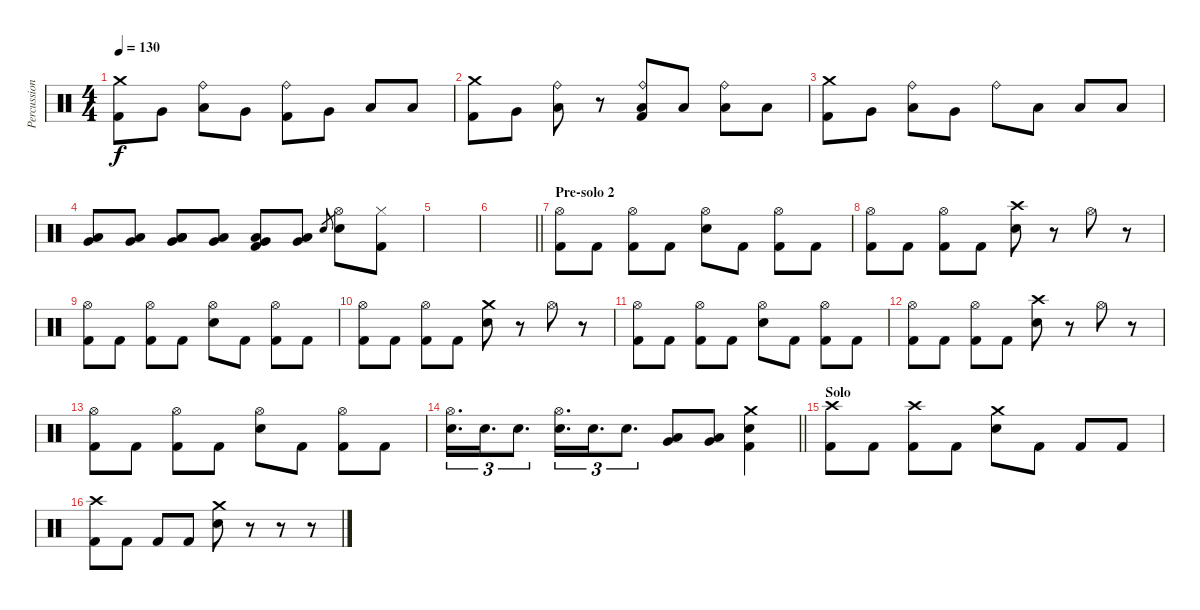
\track ("Percussion" "Percussion") {instrument percussion}
\staff {score}
\articulation defaults
\ts (4 4)
\tempo 130
\clef neutral
\ks c
("Crash medium (hit)" "Kick (hit) 2").8{dy f} "Very Low Tom (hit)".8 ("Ride (bell)" "Low Tom (hit)").8 "Very Low Tom (hit)".8 ("Ride (bell)" "Kick (hit) 2").8 "Very Low Tom (hit)".8 "Low Tom (hit)".8 "Low Tom (hit)".8 |
("Crash medium (hit)" "Kick (hit) 2").8 "Very Low Tom (hit)".8 ("Ride (bell)" "Low Floor Tom (hit)").8 r.8 ("Ride (bell)" "Low Tom (hit)" "Kick (hit) 2").8 "Low Tom (hit)".8 ("Ride (bell)" "Low Tom (hit)").8 "Low Tom (hit)".8 |
("Crash medium (hit)" "Kick (hit) 2").8 "Very Low Tom (hit)".8 ("Ride (bell)" "Low Tom (hit)").8 "Very Low Tom (hit)".8 "Ride (bell)".8 "Low Floor Tom (hit)".8 "Low Floor Tom (hit)".8 "Low Tom (hit)".8{volume 8} |
("Very Low Tom (hit)" "Low Tom (hit)").8{volume 16} ("Very Low Tom (hit)" "Low Tom (hit)").8 ("Very Low Tom (hit)" "Low Tom (hit)" "Low Floor Tom (hit)").8 ("Very Low Tom (hit)" "Low Tom (hit)").8 ("Very Low Tom (hit)" "Low Tom (hit)" "Kick (hit) 2").8 ("Very Low Tom (hit)" "Low Tom (hit)").8 "Electric Snare (hit)".8{gr} ("Hi-Hat (open)" "Electric Snare (hit)").8 ("Hi-Hat (closed)" "Kick (hit) 2").8 |
|
\barLineRight lightlight
|
\section ("" "Pre-solo 2")
("Hi-Hat (open)" "Kick (hit) 2").8 "Kick (hit) 2".8 ("Hi-Hat (open)" "Kick (hit) 2").8 "Kick (hit) 2".8 ("Hi-Hat (open)" "Electric Snare (hit)").8 "Kick (hit) 2".8 ("Hi-Hat (open)" "Kick (hit) 2").8 "Kick (hit) 2".8 |
("Hi-Hat (open)" "Kick (hit) 2").8 "Kick (hit) 2".8 ("Hi-Hat (open)" "Kick (hit) 2").8 "Kick (hit) 2".8 ("Crash high (hit)" "Electric Snare (hit)").8 r.8 "Hi-Hat (open)".8 r.8 |
("Hi-Hat (open)" "Kick (hit) 2").8 "Kick (hit) 2".8 ("Hi-Hat (open)" "Kick (hit) 2").8 "Kick (hit) 2".8 ("Hi-Hat (open)" "Electric Snare (hit)").8 "Kick (hit) 2".8 ("Hi-Hat (open)" "Kick (hit) 2").8 "Kick (hit) 2".8 |
("Hi-Hat (open)" "Kick (hit) 2").8 "Kick (hit) 2".8 ("Hi-Hat (open)" "Kick (hit) 2").8 "Kick (hit) 2".8 ("Crash medium (hit)" "Electric Snare (hit)").8 r.8 "Hi-Hat (open)".8 r.8 |
("Hi-Hat (open)" "Kick (hit) 2").8 "Kick (hit) 2".8 ("Hi-Hat (open)" "Kick (hit) 2").8 "Kick (hit) 2".8 ("Hi-Hat (open)" "Electric Snare (hit)").8 "Kick (hit) 2".8 ("Hi-Hat (open)" "Kick (hit) 2").8 "Kick (hit) 2".8 |
("Hi-Hat (open)" "Kick (hit) 2").8 "Kick (hit) 2".8 ("Hi-Hat (open)" "Kick (hit) 2").8 "Kick (hit) 2".8 ("Crash high (hit)" "Electric Snare (hit)").8 r.8 "Hi-Hat (open)".8 r.8 |
("Hi-Hat (open)" "Kick (hit) 2").8 "Kick (hit) 2".8 ("Hi-Hat (open)" "Kick (hit) 2").8 "Kick (hit) 2".8 ("Hi-Hat (open)" "Electric Snare (hit)").8 "Kick (hit) 2".8 ("Hi-Hat (open)" "Kick (hit) 2").8 "Kick (hit) 2".8 |
\barLineRight lightlight
("Hi-Hat (open)" "Electric Snare (hit)").16{d tu (3 2)} "Electric Snare (hit)".16{d tu (3 2)} "Electric Snare (hit)".8{d tu (3 2)} ("Hi-Hat (open)" "Electric Snare (hit)").16{d tu (3 2)} "Electric Snare (hit)".16{d tu (3 2)} "Electric Snare (hit)".8{d tu (3 2)} ("Low Tom (hit)" "Very Low Tom (hit)").8 ("Low Tom (hit)" "Very Low Tom (hit)").8 ("Crash medium (hit)" "Electric Snare (hit)" "Kick (hit) 2").4 |
\section ("" "Solo")
("Crash high (hit)" "Kick (hit) 2").8 "Kick (hit) 2".8 ("Crash high (hit)" "Kick (hit) 2").8 "Kick (hit) 2".8 ("Crash medium (hit)" "Electric Snare (hit)").8 "Kick (hit) 2".8 "Kick (hit) 2".8 "Kick (hit) 2".8 |
("Crash high (hit)" "Kick (hit) 2").8 "Kick (hit) 2".8 "Kick (hit) 2".8 "Kick (hit) 2".8 ("Crash medium (hit)" "Electric Snare (hit)").8 r.8 r.8 r.8
